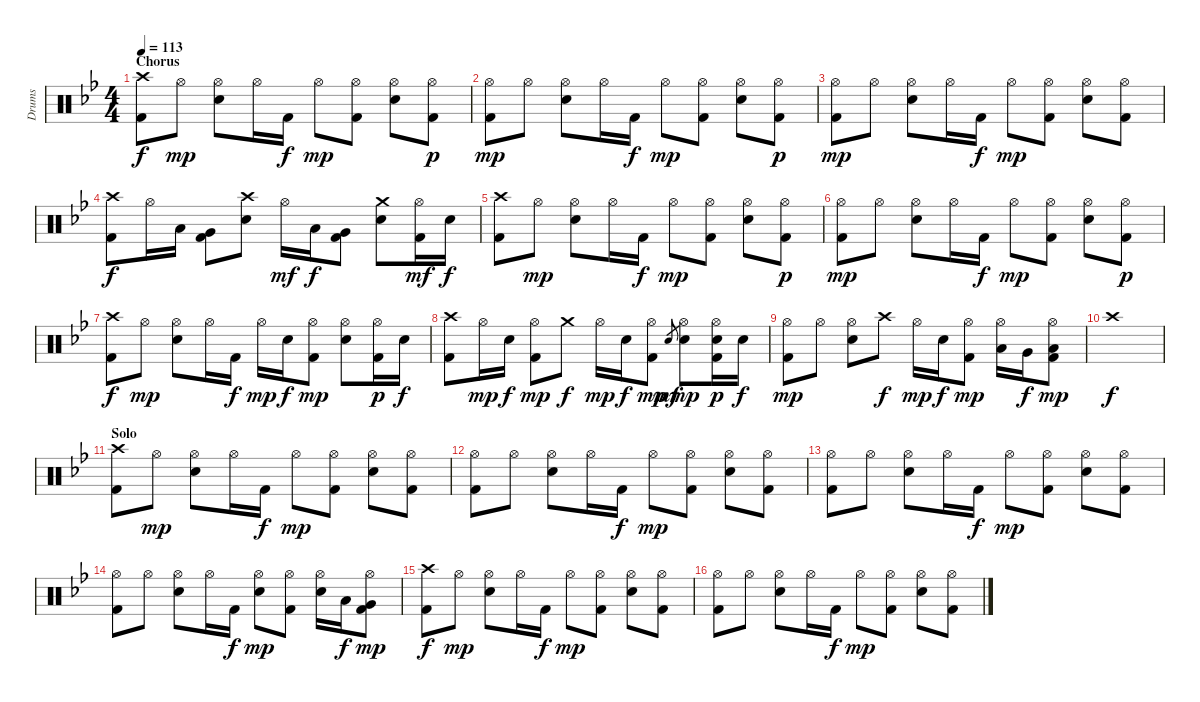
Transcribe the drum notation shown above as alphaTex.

\track ("Drums" "Drums") {instrument percussion}
\staff {score}
\articulation defaults
\ts (4 4)
\section ("" "Chorus")
\tempo 113
\clef neutral
\ks bb
("Crash high (hit)" "Kick (hit) 2").8{dy f} "Hi-Hat (open)".8{dy mp} ("Hi-Hat (open)" "Electric Snare (hit)").8 "Hi-Hat (open)".16 "Kick (hit) 2".16{dy f} "Hi-Hat (open)".8{dy mp} ("Hi-Hat (open)" "Kick (hit) 2").8 ("Hi-Hat (open)" "Electric Snare (hit)").8 ("Hi-Hat (open)" "Kick (hit) 2").8{dy p} |
("Hi-Hat (open)" "Kick (hit) 2").8{dy mp} "Hi-Hat (open)".8 ("Hi-Hat (open)" "Electric Snare (hit)").8 "Hi-Hat (open)".16 "Kick (hit) 2".16{dy f} "Hi-Hat (open)".8{dy mp} ("Hi-Hat (open)" "Kick (hit) 2").8 ("Hi-Hat (open)" "Electric Snare (hit)").8 ("Hi-Hat (open)" "Kick (hit) 2").8{dy p} |
("Hi-Hat (open)" "Kick (hit) 2").8{dy mp} "Hi-Hat (open)".8 ("Hi-Hat (open)" "Electric Snare (hit)").8 "Hi-Hat (open)".16 "Kick (hit) 2".16{dy f} "Hi-Hat (open)".8{dy mp} ("Hi-Hat (open)" "Kick (hit) 2").8 ("Hi-Hat (open)" "Electric Snare (hit)").8 ("Hi-Hat (open)" "Kick (hit) 2").8 |
("Crash high (hit)" "Kick (hit) 2").8{dy f} "Hi-Hat (open)".16 "Low Tom (hit)".16 ("Very Low Tom (hit)" "Kick (hit) 2").8 ("Crash high (hit)" "Electric Snare (hit)").8 "Hi-Hat (open)".16{dy mf} "Low Tom (hit)".16{dy f} ("Very Low Tom (hit)" "Kick (hit) 2").8 ("Crash medium (hit)" "Electric Snare (hit)").8 ("Hi-Hat (open)" "Kick (hit) 2").16{dy mf} "Electric Snare (hit)".16{dy f} |
("Crash high (hit)" "Kick (hit) 2").8 "Hi-Hat (open)".8{dy mp} ("Hi-Hat (open)" "Electric Snare (hit)").8 "Hi-Hat (open)".16 "Kick (hit) 2".16{dy f} "Hi-Hat (open)".8{dy mp} ("Hi-Hat (open)" "Kick (hit) 2").8 ("Hi-Hat (open)" "Electric Snare (hit)").8 ("Hi-Hat (open)" "Kick (hit) 2").8{dy p} |
("Hi-Hat (open)" "Kick (hit) 2").8{dy mp} "Hi-Hat (open)".8 ("Hi-Hat (open)" "Electric Snare (hit)").8 "Hi-Hat (open)".16 "Kick (hit) 2".16{dy f} "Hi-Hat (open)".8{dy mp} ("Hi-Hat (open)" "Kick (hit) 2").8 ("Hi-Hat (open)" "Electric Snare (hit)").8 ("Hi-Hat (open)" "Kick (hit) 2").8{dy p} |
("Crash high (hit)" "Kick (hit) 2").8{dy f} "Hi-Hat (open)".8{dy mp} ("Hi-Hat (open)" "Electric Snare (hit)").8 "Hi-Hat (open)".16 "Kick (hit) 2".16{dy f} "Hi-Hat (open)".16{dy mp} "Electric Snare (hit)".16{dy f} ("Hi-Hat (open)" "Kick (hit) 2").8{dy mp} ("Hi-Hat (open)" "Electric Snare (hit)").8 ("Hi-Hat (open)" "Kick (hit) 2").16{dy p} "Electric Snare (hit)".16{dy f} |
("Crash high (hit)" "Kick (hit) 2").8 "Hi-Hat (open)".16{dy mp} "Electric Snare (hit)".16{dy f} ("Hi-Hat (open)" "Kick (hit) 2").8{dy mp} "Crash medium (hit)".8{dy f} "Hi-Hat (open)".16{dy mp} "Electric Snare (hit)".16{dy f} ("Hi-Hat (open)" "Kick (hit) 2").8{dy mp} "Electric Snare (hit)".8{gr dy mf} ("Hi-Hat (open)" "Electric Snare (hit)").8{dy mp} ("Hi-Hat (open)" "Electric Snare (hit)" "Kick (hit) 2").16{dy p} "Electric Snare (hit)".16{dy f} |
("Hi-Hat (open)" "Kick (hit) 2").8{dy mp} "Hi-Hat (open)".8 ("Hi-Hat (open)" "Electric Snare (hit)").8 "Crash high (hit)".8{dy f} "Hi-Hat (open)".16{dy mp} "Electric Snare (hit)".16{dy f} ("Hi-Hat (open)" "Kick (hit) 2").8{dy mp} ("Hi-Hat (open)" "Low Tom (hit)").16 "Very Low Tom (hit)".16{dy f} ("Hi-Hat (open)" "Low Floor Tom (hit)" "Kick (hit) 2").8{dy mp} |
"Crash high (hit)".1{dy f} |
\section ("" "Solo")
("Crash high (hit)" "Kick (hit) 2").8 "Hi-Hat (open)".8{dy mp} ("Hi-Hat (open)" "Electric Snare (hit)").8 "Hi-Hat (open)".16 "Kick (hit) 2".16{dy f} "Hi-Hat (open)".8{dy mp} ("Hi-Hat (open)" "Kick (hit) 2").8 ("Hi-Hat (open)" "Electric Snare (hit)").8 ("Hi-Hat (open)" "Kick (hit) 2").8 |
("Hi-Hat (open)" "Kick (hit) 2").8 "Hi-Hat (open)".8 ("Hi-Hat (open)" "Electric Snare (hit)").8 "Hi-Hat (open)".16 "Kick (hit) 2".16{dy f} "Hi-Hat (open)".8{dy mp} ("Hi-Hat (open)" "Kick (hit) 2").8 ("Hi-Hat (open)" "Electric Snare (hit)").8 ("Hi-Hat (open)" "Kick (hit) 2").8 |
("Hi-Hat (open)" "Kick (hit) 2").8 "Hi-Hat (open)".8 ("Hi-Hat (open)" "Electric Snare (hit)").8 "Hi-Hat (open)".16 "Kick (hit) 2".16{dy f} "Hi-Hat (open)".8{dy mp} ("Hi-Hat (open)" "Kick (hit) 2").8 ("Hi-Hat (open)" "Electric Snare (hit)").8 ("Hi-Hat (open)" "Kick (hit) 2").8 |
("Hi-Hat (open)" "Kick (hit) 2").8 "Hi-Hat (open)".8 ("Hi-Hat (open)" "Electric Snare (hit)").8 "Hi-Hat (open)".16 "Kick (hit) 2".16{dy f} ("Hi-Hat (open)" "Electric Snare (hit)").8{dy mp} ("Hi-Hat (open)" "Kick (hit) 2").8 ("Hi-Hat (open)" "Electric Snare (hit)").16 "Low Tom (hit)".16{dy f} ("Hi-Hat (open)" "Very Low Tom (hit)" "Kick (hit) 2").8{dy mp} |
("Crash high (hit)" "Kick (hit) 2").8{dy f} "Hi-Hat (open)".8{dy mp} ("Hi-Hat (open)" "Electric Snare (hit)").8 "Hi-Hat (open)".16 "Kick (hit) 2".16{dy f} "Hi-Hat (open)".8{dy mp} ("Hi-Hat (open)" "Kick (hit) 2").8 ("Hi-Hat (open)" "Electric Snare (hit)").8 ("Hi-Hat (open)" "Kick (hit) 2").8 |
("Hi-Hat (open)" "Kick (hit) 2").8 "Hi-Hat (open)".8 ("Hi-Hat (open)" "Electric Snare (hit)").8 "Hi-Hat (open)".16 "Kick (hit) 2".16{dy f} "Hi-Hat (open)".8{dy mp} ("Hi-Hat (open)" "Kick (hit) 2").8 ("Hi-Hat (open)" "Electric Snare (hit)").8 ("Hi-Hat (open)" "Kick (hit) 2").8
